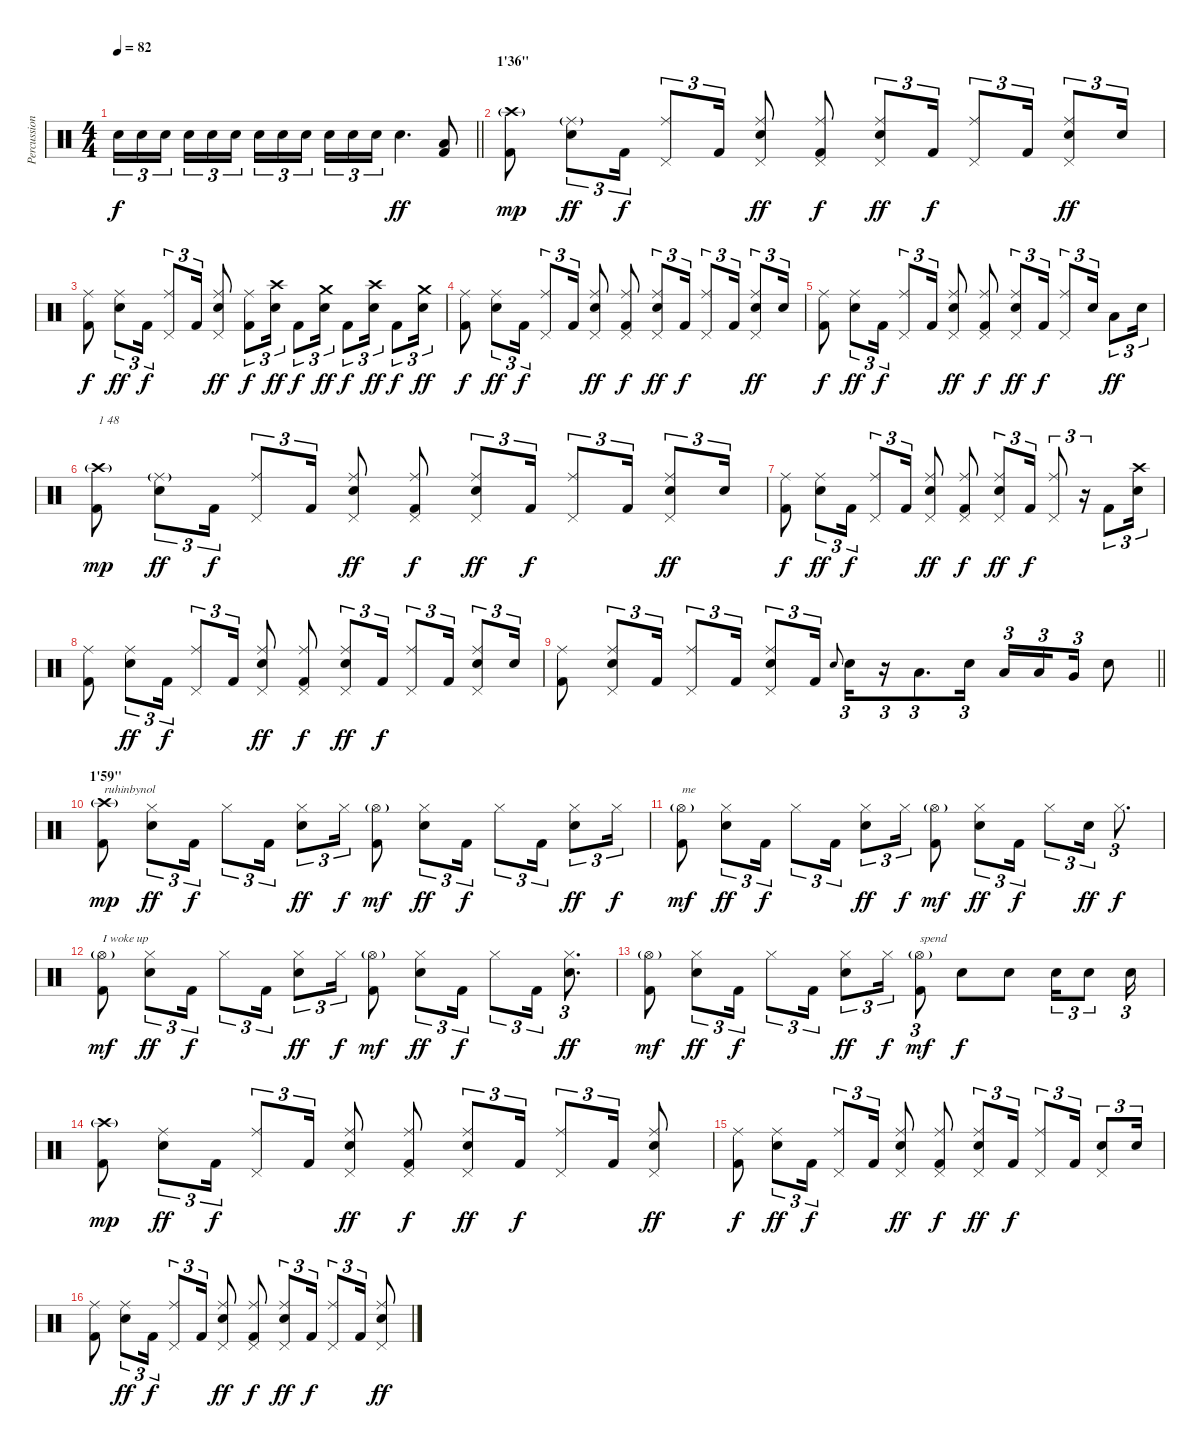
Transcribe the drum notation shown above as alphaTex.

\track ("Percussions" "Percussion") {instrument percussion}
\staff {score}
\articulation defaults
\ts (4 4)
\tempo 82
\clef neutral
\barLineRight lightlight
\ks c "Electric Snare (hit)".16{tu (3 2) dy f} "Electric Snare (hit)".16{tu (3 2)} "Electric Snare (hit)".16{tu (3 2) beam splitsecondary} "Electric Snare (hit)".16{tu (3 2)} "Electric Snare (hit)".16{tu (3 2)} "Electric Snare (hit)".16{tu (3 2)} "Electric Snare (hit)".16{tu (3 2)} "Electric Snare (hit)".16{tu (3 2)} "Electric Snare (hit)".16{tu (3 2) beam splitsecondary} "Electric Snare (hit)".16{tu (3 2)} "Electric Snare (hit)".16{tu (3 2)} "Electric Snare (hit)".16{tu (3 2)} "Electric Snare (hit)".4{d dy ff}
("Low Floor Tom (hit)" "Kick (hit) 2").8 |
\section ("" "1'36\"")
("Crash high (hit)"{g} "Kick (hit) 2").8{dy mp} ("Ride (middle)"{g} "Electric Snare (hit)").8{tu (3 2) dy ff} "Kick (hit) 2".16{tu (3 2) dy f} ("Ride (middle)" "Pedal Hi-Hat (hit)").8{tu (3 2)} "Kick (hit) 2".16{tu (3 2)} ("Ride (middle)" "Electric Snare (hit)" "Pedal Hi-Hat (hit)").8{dy ff} ("Ride (middle)" "Kick (hit) 2" "Pedal Hi-Hat (hit)").8{dy f} ("Ride (middle)" "Electric Snare (hit)" "Pedal Hi-Hat (hit)").8{tu (3 2) dy ff} "Kick (hit) 2".16{tu (3 2) dy f} ("Ride (middle)" "Pedal Hi-Hat (hit)").8{tu (3 2)} "Kick (hit) 2".16{tu (3 2)} ("Ride (middle)" "Electric Snare (hit)" "Pedal Hi-Hat (hit)").8{tu (3 2) dy ff} "Electric Snare (hit)".16{tu (3 2)} |
("Ride (middle)" "Kick (hit) 2").8{dy f} ("Ride (middle)" "Electric Snare (hit)").8{tu (3 2) dy ff} "Kick (hit) 2".16{tu (3 2) dy f} ("Ride (middle)" "Pedal Hi-Hat (hit)").8{tu (3 2)} "Kick (hit) 2".16{tu (3 2)} ("Ride (middle)" "Electric Snare (hit)" "Pedal Hi-Hat (hit)").8{dy ff} ("Ride (middle)" "Kick (hit) 2").8{tu (3 2) dy f} ("Crash high (hit)" "Electric Snare (hit)").16{tu (3 2) dy ff} "Kick (hit) 2".8{tu (3 2) dy f} ("Crash medium (hit)" "Electric Snare (hit)").16{tu (3 2) dy ff} "Kick (hit) 2".8{tu (3 2) dy f} ("Crash high (hit)" "Electric Snare (hit)").16{tu (3 2) dy ff} "Kick (hit) 2".8{tu (3 2) dy f} ("Crash medium (hit)" "Electric Snare (hit)").16{tu (3 2) dy ff} |
("Ride (middle)" "Kick (hit) 2").8{dy f} ("Ride (middle)" "Electric Snare (hit)").8{tu (3 2) dy ff} "Kick (hit) 2".16{tu (3 2) dy f} ("Ride (middle)" "Pedal Hi-Hat (hit)").8{tu (3 2)} "Kick (hit) 2".16{tu (3 2)} ("Ride (middle)" "Electric Snare (hit)" "Pedal Hi-Hat (hit)").8{dy ff} ("Ride (middle)" "Kick (hit) 2" "Pedal Hi-Hat (hit)").8{dy f} ("Ride (middle)" "Electric Snare (hit)" "Pedal Hi-Hat (hit)").8{tu (3 2) dy ff} "Kick (hit) 2".16{tu (3 2) dy f} ("Ride (middle)" "Pedal Hi-Hat (hit)").8{tu (3 2)} "Kick (hit) 2".16{tu (3 2)} ("Ride (middle)" "Electric Snare (hit)" "Pedal Hi-Hat (hit)").8{tu (3 2) dy ff} "Electric Snare (hit)".16{tu (3 2)} |
("Ride (middle)" "Kick (hit) 2").8{dy f} ("Ride (middle)" "Electric Snare (hit)").8{tu (3 2) dy ff} "Kick (hit) 2".16{tu (3 2) dy f} ("Ride (middle)" "Pedal Hi-Hat (hit)").8{tu (3 2)} "Kick (hit) 2".16{tu (3 2)} ("Ride (middle)" "Electric Snare (hit)" "Pedal Hi-Hat (hit)").8{dy ff} ("Ride (middle)" "Kick (hit) 2" "Pedal Hi-Hat (hit)").8{dy f} ("Ride (middle)" "Electric Snare (hit)" "Pedal Hi-Hat (hit)").8{tu (3 2) dy ff} "Kick (hit) 2".16{tu (3 2) dy f} ("Ride (middle)" "Pedal Hi-Hat (hit)").8{tu (3 2)} "Electric Snare (hit)".16{tu (3 2)} "Low Tom (hit)".8{tu (3 2) dy ff} "Electric Snare (hit)".16{tu (3 2)} |
("Crash high (hit)"{g} "Kick (hit) 2").8{txt "1 48" dy mp} ("Ride (middle)"{g} "Electric Snare (hit)").8{tu (3 2) dy ff} "Kick (hit) 2".16{tu (3 2) dy f} ("Ride (middle)" "Pedal Hi-Hat (hit)").8{tu (3 2)} "Kick (hit) 2".16{tu (3 2)} ("Ride (middle)" "Electric Snare (hit)" "Pedal Hi-Hat (hit)").8{dy ff} ("Ride (middle)" "Kick (hit) 2" "Pedal Hi-Hat (hit)").8{dy f} ("Ride (middle)" "Electric Snare (hit)" "Pedal Hi-Hat (hit)").8{tu (3 2) dy ff} "Kick (hit) 2".16{tu (3 2) dy f} ("Ride (middle)" "Pedal Hi-Hat (hit)").8{tu (3 2)} "Kick (hit) 2".16{tu (3 2)} ("Ride (middle)" "Electric Snare (hit)" "Pedal Hi-Hat (hit)").8{tu (3 2) dy ff} "Electric Snare (hit)".16{tu (3 2)} |
("Ride (middle)" "Kick (hit) 2").8{dy f} ("Ride (middle)" "Electric Snare (hit)").8{tu (3 2) dy ff} "Kick (hit) 2".16{tu (3 2) dy f} ("Ride (middle)" "Pedal Hi-Hat (hit)").8{tu (3 2)} "Kick (hit) 2".16{tu (3 2)} ("Ride (middle)" "Electric Snare (hit)" "Pedal Hi-Hat (hit)").8{dy ff} ("Ride (middle)" "Kick (hit) 2" "Pedal Hi-Hat (hit)").8{dy f} ("Ride (middle)" "Electric Snare (hit)" "Pedal Hi-Hat (hit)").8{tu (3 2) dy ff} "Kick (hit) 2".16{tu (3 2) dy f} ("Ride (middle)" "Pedal Hi-Hat (hit)").8{tu (3 2)} r.16{tu (3 2)} "Kick (hit) 2".8{tu (3 2)} ("Crash high (hit)" "Electric Snare (hit)").16{tu (3 2)} |
("Ride (middle)" "Kick (hit) 2").8 ("Ride (middle)" "Electric Snare (hit)").8{tu (3 2) dy ff} "Kick (hit) 2".16{tu (3 2) dy f} ("Ride (middle)" "Pedal Hi-Hat (hit)").8{tu (3 2)} "Kick (hit) 2".16{tu (3 2)} ("Ride (middle)" "Electric Snare (hit)" "Pedal Hi-Hat (hit)").8{dy ff} ("Ride (middle)" "Kick (hit) 2" "Pedal Hi-Hat (hit)").8{dy f} ("Ride (middle)" "Electric Snare (hit)" "Pedal Hi-Hat (hit)").8{tu (3 2) dy ff} "Kick (hit) 2".16{tu (3 2) dy f} ("Ride (middle)" "Pedal Hi-Hat (hit)").8{tu (3 2)} "Kick (hit) 2".16{tu (3 2)} ("Ride (middle)" "Electric Snare (hit)" "Pedal Hi-Hat (hit)").8{tu (3 2)} "Electric Snare (hit)".16{tu (3 2)} |
\barLineRight lightlight
("Ride (middle)" "Kick (hit) 2").8 ("Ride (middle)" "Electric Snare (hit)" "Pedal Hi-Hat (hit)").8{tu (3 2)} "Kick (hit) 2".16{tu (3 2)} ("Ride (middle)" "Pedal Hi-Hat (hit)").8{tu (3 2)} "Kick (hit) 2".16{tu (3 2)} ("Ride (middle)" "Electric Snare (hit)" "Pedal Hi-Hat (hit)").8{tu (3 2)} "Kick (hit) 2".16{tu (3 2)} "Electric Snare (hit)".8{gr onbeat} "Electric Snare (hit)".16{tu (3 2)} r.16{tu (3 2)} "Low Tom (hit)".8{d tu (3 2)} "Electric Snare (hit)".16{tu (3 2)} "Low Tom (hit)".16{tu (3 2)} "Low Tom (hit)".16{tu (3 2) beam splitsecondary} "Very Low Tom (hit)".16{tu (3 2)} "Electric Snare (hit)".8 |
\section ("" "1'59\"")
("Crash high (hit)"{g} "Kick (hit) 2").8{txt "ruhinbynol" dy mp} ("Hi-Hat (closed)" "Electric Snare (hit)").8{tu (3 2) dy ff} "Kick (hit) 2".16{tu (3 2) dy f} "Hi-Hat (closed)".8{tu (3 2)} "Kick (hit) 2".16{tu (3 2)} ("Hi-Hat (closed)" "Electric Snare (hit)").8{tu (3 2) dy ff} "Hi-Hat (closed)".16{tu (3 2) dy f} ("Hi-Hat (open)"{g} "Kick (hit) 2").8{dy mf} ("Hi-Hat (closed)" "Electric Snare (hit)").8{tu (3 2) dy ff} "Kick (hit) 2".16{tu (3 2) dy f} "Hi-Hat (closed)".8{tu (3 2)} "Kick (hit) 2".16{tu (3 2)} ("Hi-Hat (closed)" "Electric Snare (hit)").8{tu (3 2) dy ff} "Hi-Hat (closed)".16{tu (3 2) dy f} |
("Hi-Hat (open)"{g} "Kick (hit) 2").8{txt "me" dy mf} ("Hi-Hat (closed)" "Electric Snare (hit)").8{tu (3 2) dy ff} "Kick (hit) 2".16{tu (3 2) dy f} "Hi-Hat (closed)".8{tu (3 2)} "Kick (hit) 2".16{tu (3 2)} ("Hi-Hat (closed)" "Electric Snare (hit)").8{tu (3 2) dy ff} "Hi-Hat (closed)".16{tu (3 2) dy f} ("Hi-Hat (open)"{g} "Kick (hit) 2").8{dy mf} ("Hi-Hat (closed)" "Electric Snare (hit)").8{tu (3 2) dy ff} "Kick (hit) 2".16{tu (3 2) dy f} "Hi-Hat (closed)".8{tu (3 2)} "Electric Snare (hit)".16{tu (3 2) dy ff} "Hi-Hat (closed)".8{d tu (3 2) dy f} |
("Hi-Hat (open)"{g} "Kick (hit) 2").8{txt "I woke up" dy mf} ("Hi-Hat (closed)" "Electric Snare (hit)").8{tu (3 2) dy ff} "Kick (hit) 2".16{tu (3 2) dy f} "Hi-Hat (closed)".8{tu (3 2)} "Kick (hit) 2".16{tu (3 2)} ("Hi-Hat (closed)" "Electric Snare (hit)").8{tu (3 2) dy ff} "Hi-Hat (closed)".16{tu (3 2) dy f} ("Hi-Hat (open)"{g} "Kick (hit) 2").8{dy mf} ("Hi-Hat (closed)" "Electric Snare (hit)").8{tu (3 2) dy ff} "Kick (hit) 2".16{tu (3 2) dy f} "Hi-Hat (closed)".8{tu (3 2)} "Kick (hit) 2".16{tu (3 2)} ("Hi-Hat (closed)" "Electric Snare (hit)").8{d tu (3 2) dy ff} |
("Hi-Hat (open)"{g} "Kick (hit) 2").8{dy mf} ("Hi-Hat (closed)" "Electric Snare (hit)").8{tu (3 2) dy ff} "Kick (hit) 2".16{tu (3 2) dy f} "Hi-Hat (closed)".8{tu (3 2)} "Kick (hit) 2".16{tu (3 2)} ("Hi-Hat (closed)" "Electric Snare (hit)").8{tu (3 2) dy ff} "Hi-Hat (closed)".16{tu (3 2) dy f} ("Hi-Hat (open)"{g} "Kick (hit) 2").8{tu (3 2) txt "spend" dy mf} "Electric Snare (hit)".8{dy f} "Electric Snare (hit)".8 "Electric Snare (hit)".16{tu (3 2)} "Electric Snare (hit)".8{tu (3 2)} "Electric Snare (hit)".16{tu (3 2)} |
("Crash high (hit)"{g} "Kick (hit) 2").8{dy mp} ("Ride (middle)" "Electric Snare (hit)").8{tu (3 2) dy ff} "Kick (hit) 2".16{tu (3 2) dy f} ("Ride (middle)" "Pedal Hi-Hat (hit)").8{tu (3 2)} "Kick (hit) 2".16{tu (3 2)} ("Ride (middle)" "Electric Snare (hit)" "Pedal Hi-Hat (hit)").8{dy ff} ("Ride (middle)" "Kick (hit) 2" "Pedal Hi-Hat (hit)").8{dy f} ("Ride (middle)" "Electric Snare (hit)" "Pedal Hi-Hat (hit)").8{tu (3 2) dy ff} "Kick (hit) 2".16{tu (3 2) dy f} ("Ride (middle)" "Pedal Hi-Hat (hit)").8{tu (3 2)} "Kick (hit) 2".16{tu (3 2)} ("Ride (middle)" "Electric Snare (hit)" "Pedal Hi-Hat (hit)").8{dy ff} |
("Ride (middle)" "Kick (hit) 2").8{dy f} ("Ride (middle)" "Electric Snare (hit)").8{tu (3 2) dy ff} "Kick (hit) 2".16{tu (3 2) dy f} ("Ride (middle)" "Pedal Hi-Hat (hit)").8{tu (3 2)} "Kick (hit) 2".16{tu (3 2)} ("Ride (middle)" "Electric Snare (hit)" "Pedal Hi-Hat (hit)").8{dy ff} ("Ride (middle)" "Kick (hit) 2" "Pedal Hi-Hat (hit)").8{dy f} ("Ride (middle)" "Electric Snare (hit)" "Pedal Hi-Hat (hit)").8{tu (3 2) dy ff} "Kick (hit) 2".16{tu (3 2) dy f} ("Ride (middle)" "Pedal Hi-Hat (hit)").8{tu (3 2)} "Kick (hit) 2".16{tu (3 2)} ("Electric Snare (hit)" "Pedal Hi-Hat (hit)").8{tu (3 2)} "Electric Snare (hit)".16{tu (3 2)} |
("Ride (middle)" "Kick (hit) 2").8 ("Ride (middle)" "Electric Snare (hit)").8{tu (3 2) dy ff} "Kick (hit) 2".16{tu (3 2) dy f} ("Ride (middle)" "Pedal Hi-Hat (hit)").8{tu (3 2)} "Kick (hit) 2".16{tu (3 2)} ("Ride (middle)" "Electric Snare (hit)" "Pedal Hi-Hat (hit)").8{dy ff} ("Ride (middle)" "Kick (hit) 2" "Pedal Hi-Hat (hit)").8{dy f} ("Ride (middle)" "Electric Snare (hit)" "Pedal Hi-Hat (hit)").8{tu (3 2) dy ff} "Kick (hit) 2".16{tu (3 2) dy f} ("Ride (middle)" "Pedal Hi-Hat (hit)").8{tu (3 2)} "Kick (hit) 2".16{tu (3 2)} ("Ride (middle)" "Electric Snare (hit)" "Pedal Hi-Hat (hit)").8{dy ff}
